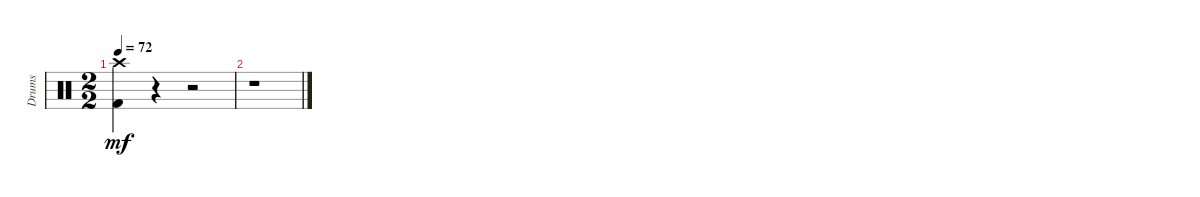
\track ("Drums" "Drums") {instrument percussion}
\staff {score}
\articulation defaults
\ts (2 2)
\tempo 72
\clef neutral
\ks c
("Crash high (hit)" "Kick (hit) 2").4{dy mf} r.4 r.2 |
r.1
